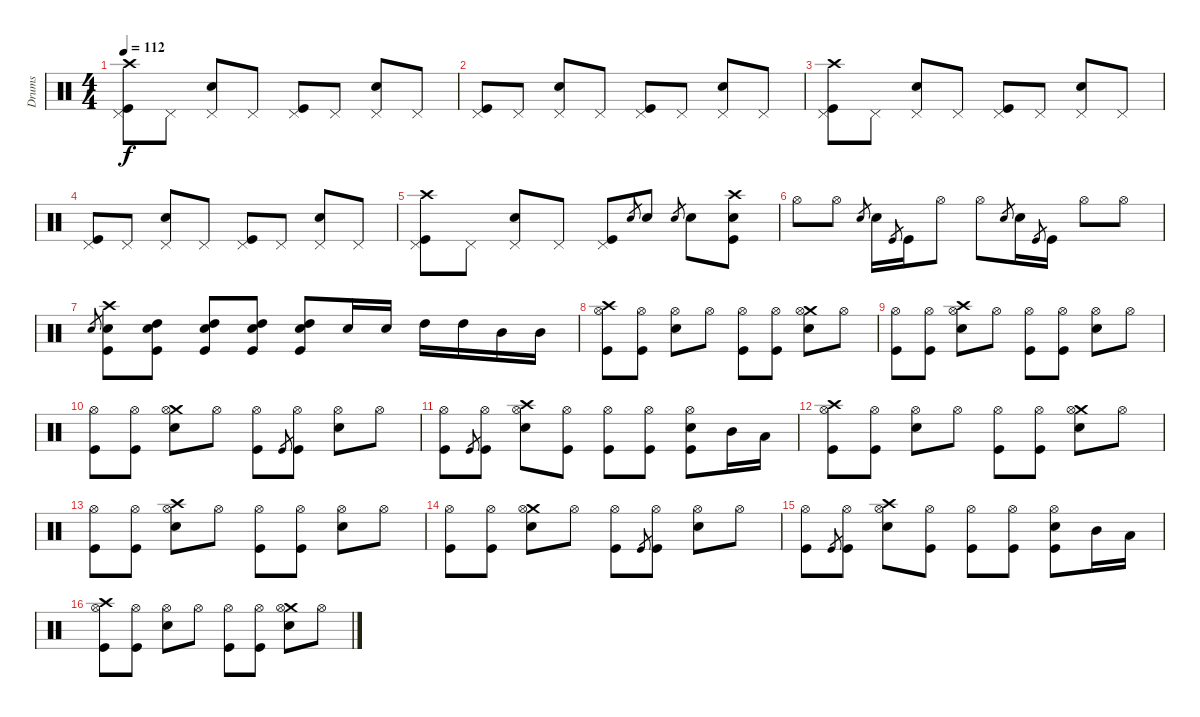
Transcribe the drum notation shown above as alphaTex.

\track ("Drums" "Drums") {instrument percussion}
\staff {score}
\articulation defaults
\ts (4 4)
\tempo 112
\clef neutral
\ks c
("Crash high (hit)" "Pedal Hi-Hat (hit)" "Kick (hit)").8{dy f} "Pedal Hi-Hat (hit)".8 ("Pedal Hi-Hat (hit)" "Snare (hit) 2").8 "Pedal Hi-Hat (hit)".8 ("Pedal Hi-Hat (hit)" "Kick (hit)").8 "Pedal Hi-Hat (hit)".8 ("Pedal Hi-Hat (hit)" "Snare (hit) 2").8 "Pedal Hi-Hat (hit)".8 |
("Pedal Hi-Hat (hit)" "Kick (hit)").8 "Pedal Hi-Hat (hit)".8 ("Pedal Hi-Hat (hit)" "Snare (hit) 2").8 "Pedal Hi-Hat (hit)".8 ("Pedal Hi-Hat (hit)" "Kick (hit)").8 "Pedal Hi-Hat (hit)".8 ("Pedal Hi-Hat (hit)" "Snare (hit) 2").8 "Pedal Hi-Hat (hit)".8 |
("Crash high (hit)" "Pedal Hi-Hat (hit)" "Kick (hit)").8 "Pedal Hi-Hat (hit)".8 ("Pedal Hi-Hat (hit)" "Snare (hit) 2").8 "Pedal Hi-Hat (hit)".8 ("Pedal Hi-Hat (hit)" "Kick (hit)").8 "Pedal Hi-Hat (hit)".8 ("Pedal Hi-Hat (hit)" "Snare (hit) 2").8 "Pedal Hi-Hat (hit)".8 |
("Pedal Hi-Hat (hit)" "Kick (hit)").8 "Pedal Hi-Hat (hit)".8 ("Pedal Hi-Hat (hit)" "Snare (hit) 2").8 "Pedal Hi-Hat (hit)".8 ("Pedal Hi-Hat (hit)" "Kick (hit)").8 "Pedal Hi-Hat (hit)".8 ("Pedal Hi-Hat (hit)" "Snare (hit) 2").8 "Pedal Hi-Hat (hit)".8 |
("Crash high (hit)" "Pedal Hi-Hat (hit)" "Kick (hit)").8 "Pedal Hi-Hat (hit)".8 ("Pedal Hi-Hat (hit)" "Snare (hit) 2").8 "Pedal Hi-Hat (hit)".8 ("Pedal Hi-Hat (hit)" "Kick (hit)").8 "Snare (hit) 2".8{gr} "Snare (hit) 2".8 "Snare (hit) 2".8{gr} "Snare (hit) 2".8 ("Crash high (hit)" "Snare (hit) 2" "Kick (hit)").8 |
"Hi-Hat (open)".8 "Hi-Hat (open)".8 "Snare (hit) 2".8{gr} "Snare (hit) 2".16 "Kick (hit)".8{gr} "Kick (hit)".16 "Hi-Hat (open)".8 "Hi-Hat (open)".8 "Snare (hit) 2".8{gr} "Snare (hit) 2".16 "Kick (hit)".8{gr} "Kick (hit)".16 "Hi-Hat (open)".8 "Hi-Hat (open)".8 |
"Snare (hit) 2"{h}.8{gr} ("Crash high (hit)" "Snare (hit) 2" "Kick (hit)").8 ("Snare (hit) 2" "High Tom (hit)" "Kick (hit)").8 ("Snare (hit) 2" "High Tom (hit)" "Kick (hit)").8 ("Snare (hit) 2" "High Tom (hit)" "Kick (hit)").8 ("Snare (hit) 2" "High Tom (hit)" "Kick (hit)").8 "Snare (hit) 2".16 "Snare (hit) 2".16 "High Tom (hit)".16 "High Tom (hit)".16 "Mid Tom (hit)".16 "Mid Tom (hit)".16 |
("Crash high (hit)" "Hi-Hat (open)" "Kick (hit)").8 ("Hi-Hat (open)" "Kick (hit)").8 ("Hi-Hat (open)" "Snare (hit) 2").8 "Hi-Hat (open)".8 ("Hi-Hat (open)" "Kick (hit)").8 ("Hi-Hat (open)" "Kick (hit)").8 ("Crash medium (hit)" "Hi-Hat (open)" "Snare (hit) 2").8 "Hi-Hat (open)".8 |
("Hi-Hat (open)" "Kick (hit)").8 ("Hi-Hat (open)" "Kick (hit)").8 ("Crash high (hit)" "Hi-Hat (open)" "Snare (hit) 2").8 "Hi-Hat (open)".8 ("Hi-Hat (open)" "Kick (hit)").8 ("Hi-Hat (open)" "Kick (hit)").8 ("Hi-Hat (open)" "Snare (hit) 2").8 "Hi-Hat (open)".8 |
("Hi-Hat (open)" "Kick (hit)").8 ("Hi-Hat (open)" "Kick (hit)").8 ("Crash medium (hit)" "Hi-Hat (open)" "Snare (hit) 2").8 "Hi-Hat (open)".8 ("Hi-Hat (open)" "Kick (hit)").8 "Kick (hit)".8{gr} ("Hi-Hat (open)" "Kick (hit)").8 ("Hi-Hat (open)" "Snare (hit) 2").8 "Hi-Hat (open)".8 |
("Hi-Hat (open)" "Kick (hit)").8 "Kick (hit)".8{gr} ("Hi-Hat (open)" "Kick (hit)").8 ("Crash high (hit)" "Hi-Hat (open)" "Snare (hit) 2").8 ("Hi-Hat (open)" "Kick (hit)").8 ("Hi-Hat (open)" "Kick (hit)").8 ("Hi-Hat (open)" "Kick (hit)").8 ("Hi-Hat (open)" "Snare (hit) 2" "Kick (hit)").8 "Mid Tom (hit)".16 "Low Tom (hit)".16 |
("Crash high (hit)" "Hi-Hat (open)" "Kick (hit)").8 ("Hi-Hat (open)" "Kick (hit)").8 ("Hi-Hat (open)" "Snare (hit) 2").8 "Hi-Hat (open)".8 ("Hi-Hat (open)" "Kick (hit)").8 ("Hi-Hat (open)" "Kick (hit)").8 ("Crash medium (hit)" "Hi-Hat (open)" "Snare (hit) 2").8 "Hi-Hat (open)".8 |
("Hi-Hat (open)" "Kick (hit)").8 ("Hi-Hat (open)" "Kick (hit)").8 ("Crash high (hit)" "Hi-Hat (open)" "Snare (hit) 2").8 "Hi-Hat (open)".8 ("Hi-Hat (open)" "Kick (hit)").8 ("Hi-Hat (open)" "Kick (hit)").8 ("Hi-Hat (open)" "Snare (hit) 2").8 "Hi-Hat (open)".8 |
("Hi-Hat (open)" "Kick (hit)").8 ("Hi-Hat (open)" "Kick (hit)").8 ("Crash medium (hit)" "Hi-Hat (open)" "Snare (hit) 2").8 "Hi-Hat (open)".8 ("Hi-Hat (open)" "Kick (hit)").8 "Kick (hit)".8{gr} ("Hi-Hat (open)" "Kick (hit)").8 ("Hi-Hat (open)" "Snare (hit) 2").8 "Hi-Hat (open)".8 |
("Hi-Hat (open)" "Kick (hit)").8 "Kick (hit)".8{gr} ("Hi-Hat (open)" "Kick (hit)").8 ("Crash high (hit)" "Hi-Hat (open)" "Snare (hit) 2").8 ("Hi-Hat (open)" "Kick (hit)").8 ("Hi-Hat (open)" "Kick (hit)").8 ("Hi-Hat (open)" "Kick (hit)").8 ("Hi-Hat (open)" "Snare (hit) 2" "Kick (hit)").8 "Mid Tom (hit)".16 "Low Tom (hit)".16 |
("Crash high (hit)" "Hi-Hat (open)" "Kick (hit)").8 ("Hi-Hat (open)" "Kick (hit)").8 ("Hi-Hat (open)" "Snare (hit) 2").8 "Hi-Hat (open)".8 ("Hi-Hat (open)" "Kick (hit)").8 ("Hi-Hat (open)" "Kick (hit)").8 ("Crash medium (hit)" "Hi-Hat (open)" "Snare (hit) 2").8 "Hi-Hat (open)".8
